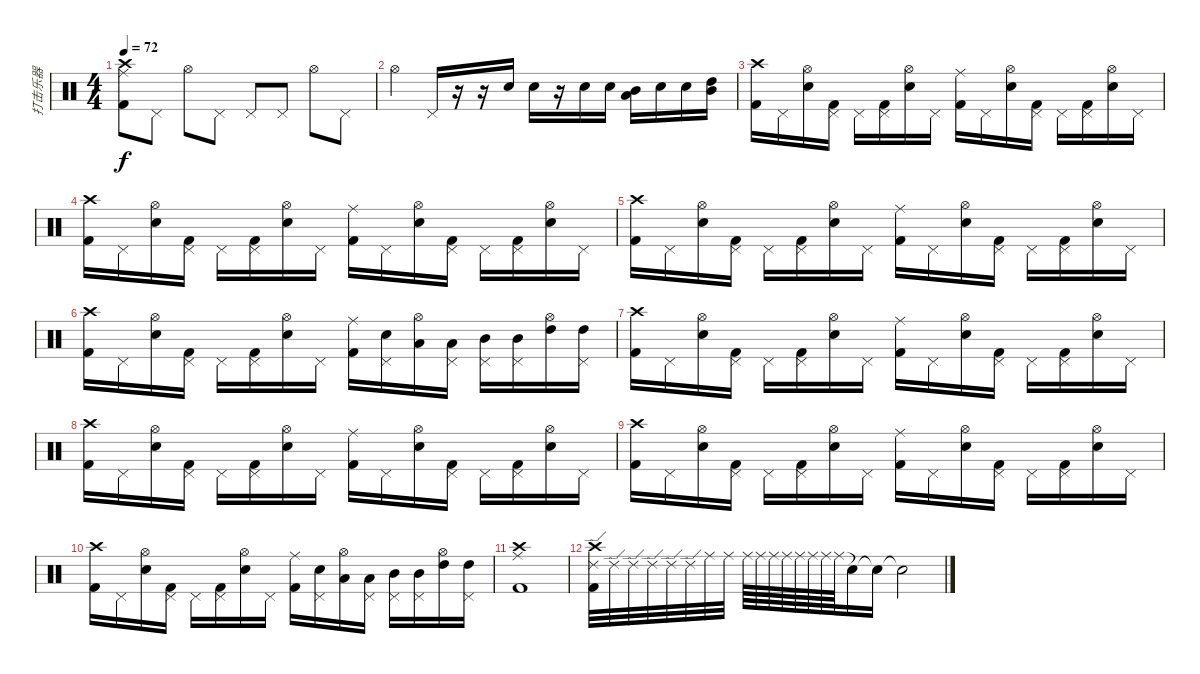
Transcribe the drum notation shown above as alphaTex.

\track ("打击乐器" "打击乐器") {instrument percussion}
\staff {score}
\articulation defaults
\ts (4 4)
\tempo 72
\clef neutral
\ks c
("Crash high (hit)" "Ride (middle)" "Kick (hit) 2").8{dy f} "Pedal Hi-Hat (hit)".8 "Hi-Hat (open)".8 "Pedal Hi-Hat (hit)".8 "Pedal Hi-Hat (hit)".8 "Pedal Hi-Hat (hit)".8 "Hi-Hat (open)".8 "Pedal Hi-Hat (hit)".8 |
"Hi-Hat (open)".4 "Pedal Hi-Hat (hit)".16 r.16 r.16 "Snare (hit) 2".16 "Snare (hit) 2".16 r.16 "Snare (hit) 2".16 "Snare (hit) 2".16 ("Mid Tom (hit)" "Low Tom (hit)").16 "Snare (hit) 2".16 "Snare (hit) 2".16 ("High Tom (hit)" "Mid Tom (hit)").16 |
("Crash high (hit)" "Kick (hit) 2").16 "Pedal Hi-Hat (hit)".16 ("Hi-Hat (open)" "Electric Snare (hit)").16 ("Pedal Hi-Hat (hit)" "Kick (hit) 2").16 "Pedal Hi-Hat (hit)".16 ("Pedal Hi-Hat (hit)" "Kick (hit) 2").16 ("Hi-Hat (open)" "Electric Snare (hit)").16 "Pedal Hi-Hat (hit)".16 ("Ride (middle)" "Kick (hit) 2").16 "Pedal Hi-Hat (hit)".16 ("Hi-Hat (open)" "Electric Snare (hit)").16 ("Pedal Hi-Hat (hit)" "Kick (hit) 2").16 "Pedal Hi-Hat (hit)".16 ("Pedal Hi-Hat (hit)" "Kick (hit) 2").16 ("Hi-Hat (open)" "Electric Snare (hit)").16 "Pedal Hi-Hat (hit)".16 |
("Crash high (hit)" "Kick (hit) 2").16 "Pedal Hi-Hat (hit)".16 ("Hi-Hat (open)" "Electric Snare (hit)").16 ("Pedal Hi-Hat (hit)" "Kick (hit) 2").16 "Pedal Hi-Hat (hit)".16 ("Pedal Hi-Hat (hit)" "Kick (hit) 2").16 ("Hi-Hat (open)" "Electric Snare (hit)").16 "Pedal Hi-Hat (hit)".16 ("Ride (middle)" "Kick (hit) 2").16 "Pedal Hi-Hat (hit)".16 ("Hi-Hat (open)" "Electric Snare (hit)").16 ("Pedal Hi-Hat (hit)" "Kick (hit) 2").16 "Pedal Hi-Hat (hit)".16 ("Pedal Hi-Hat (hit)" "Kick (hit) 2").16 ("Hi-Hat (open)" "Electric Snare (hit)").16 "Pedal Hi-Hat (hit)".16 |
("Crash high (hit)" "Kick (hit) 2").16 "Pedal Hi-Hat (hit)".16 ("Hi-Hat (open)" "Electric Snare (hit)").16 ("Pedal Hi-Hat (hit)" "Kick (hit) 2").16 "Pedal Hi-Hat (hit)".16 ("Pedal Hi-Hat (hit)" "Kick (hit) 2").16 ("Hi-Hat (open)" "Electric Snare (hit)").16 "Pedal Hi-Hat (hit)".16 ("Ride (middle)" "Kick (hit) 2").16 "Pedal Hi-Hat (hit)".16 ("Hi-Hat (open)" "Electric Snare (hit)").16 ("Pedal Hi-Hat (hit)" "Kick (hit) 2").16 "Pedal Hi-Hat (hit)".16 ("Pedal Hi-Hat (hit)" "Kick (hit) 2").16 ("Hi-Hat (open)" "Electric Snare (hit)").16 "Pedal Hi-Hat (hit)".16 |
("Crash high (hit)" "Kick (hit) 2").16 "Pedal Hi-Hat (hit)".16 ("Hi-Hat (open)" "Electric Snare (hit)").16 ("Pedal Hi-Hat (hit)" "Kick (hit) 2").16 "Pedal Hi-Hat (hit)".16 ("Pedal Hi-Hat (hit)" "Kick (hit) 2").16 ("Hi-Hat (open)" "Electric Snare (hit)").16 "Pedal Hi-Hat (hit)".16 ("Ride (middle)" "Kick (hit) 2").16 ("Pedal Hi-Hat (hit)" "Electric Snare (hit)").16 ("Hi-Hat (open)" "Low Tom (hit)").16 ("Pedal Hi-Hat (hit)" "Low Tom (hit)").16 ("Pedal Hi-Hat (hit)" "Mid Tom (hit)").16 ("Pedal Hi-Hat (hit)" "Mid Tom (hit)").16 ("Hi-Hat (open)" "High Tom (hit)").16 ("Pedal Hi-Hat (hit)" "High Tom (hit)").16 |
("Crash high (hit)" "Kick (hit) 2").16 "Pedal Hi-Hat (hit)".16 ("Hi-Hat (open)" "Electric Snare (hit)").16 ("Pedal Hi-Hat (hit)" "Kick (hit) 2").16 "Pedal Hi-Hat (hit)".16 ("Pedal Hi-Hat (hit)" "Kick (hit) 2").16 ("Hi-Hat (open)" "Electric Snare (hit)").16 "Pedal Hi-Hat (hit)".16 ("Ride (middle)" "Kick (hit) 2").16 "Pedal Hi-Hat (hit)".16 ("Hi-Hat (open)" "Electric Snare (hit)").16 ("Pedal Hi-Hat (hit)" "Kick (hit) 2").16 "Pedal Hi-Hat (hit)".16 ("Pedal Hi-Hat (hit)" "Kick (hit) 2").16 ("Hi-Hat (open)" "Electric Snare (hit)").16 "Pedal Hi-Hat (hit)".16 |
("Crash high (hit)" "Kick (hit) 2").16 "Pedal Hi-Hat (hit)".16 ("Hi-Hat (open)" "Electric Snare (hit)").16 ("Pedal Hi-Hat (hit)" "Kick (hit) 2").16 "Pedal Hi-Hat (hit)".16 ("Pedal Hi-Hat (hit)" "Kick (hit) 2").16 ("Hi-Hat (open)" "Electric Snare (hit)").16 "Pedal Hi-Hat (hit)".16 ("Ride (middle)" "Kick (hit) 2").16 "Pedal Hi-Hat (hit)".16 ("Hi-Hat (open)" "Electric Snare (hit)").16 ("Pedal Hi-Hat (hit)" "Kick (hit) 2").16 "Pedal Hi-Hat (hit)".16 ("Pedal Hi-Hat (hit)" "Kick (hit) 2").16 ("Hi-Hat (open)" "Electric Snare (hit)").16 "Pedal Hi-Hat (hit)".16 |
("Crash high (hit)" "Kick (hit) 2").16 "Pedal Hi-Hat (hit)".16 ("Hi-Hat (open)" "Electric Snare (hit)").16 ("Pedal Hi-Hat (hit)" "Kick (hit) 2").16 "Pedal Hi-Hat (hit)".16 ("Pedal Hi-Hat (hit)" "Kick (hit) 2").16 ("Hi-Hat (open)" "Electric Snare (hit)").16 "Pedal Hi-Hat (hit)".16 ("Ride (middle)" "Kick (hit) 2").16 "Pedal Hi-Hat (hit)".16 ("Hi-Hat (open)" "Electric Snare (hit)").16 ("Pedal Hi-Hat (hit)" "Kick (hit) 2").16 "Pedal Hi-Hat (hit)".16 ("Pedal Hi-Hat (hit)" "Kick (hit) 2").16 ("Hi-Hat (open)" "Electric Snare (hit)").16 "Pedal Hi-Hat (hit)".16 |
("Crash high (hit)" "Kick (hit) 2").16 "Pedal Hi-Hat (hit)".16 ("Hi-Hat (open)" "Electric Snare (hit)").16 ("Pedal Hi-Hat (hit)" "Kick (hit) 2").16 "Pedal Hi-Hat (hit)".16 ("Pedal Hi-Hat (hit)" "Kick (hit) 2").16 ("Hi-Hat (open)" "Electric Snare (hit)").16 "Pedal Hi-Hat (hit)".16 ("Ride (middle)" "Kick (hit) 2").16 ("Pedal Hi-Hat (hit)" "Electric Snare (hit)").16 ("Hi-Hat (open)" "Low Tom (hit)").16 ("Pedal Hi-Hat (hit)" "Low Tom (hit)").16 ("Pedal Hi-Hat (hit)" "Mid Tom (hit)").16 ("Pedal Hi-Hat (hit)" "Mid Tom (hit)").16 ("Hi-Hat (open)" "High Tom (hit)").16 ("Pedal Hi-Hat (hit)" "High Tom (hit)").16 |
("Crash high (hit)" "Ride (middle)" "Kick (hit) 2").1 |
("Crash high (hit)" "Ride (edge) 2" "Kick (hit) 2").32 "Ride (edge) 2".32 "Ride (edge) 2".32 "Ride (edge) 2".32 "Ride (edge) 2".32 "Ride (edge) 2".32 "Ride (middle)".32 "Ride (middle)".32 "Ride (middle)".64 "Ride (middle)".64 "Ride (middle)".64 "Ride (middle)".64 "Ride (middle)".64 "Ride (middle)".64 "Ride (middle)".64 "Ride (middle)".64 "Snare (hit)"{t}.16 "Snare (hit)"{t}.16 "Snare (hit)"{t}.2
